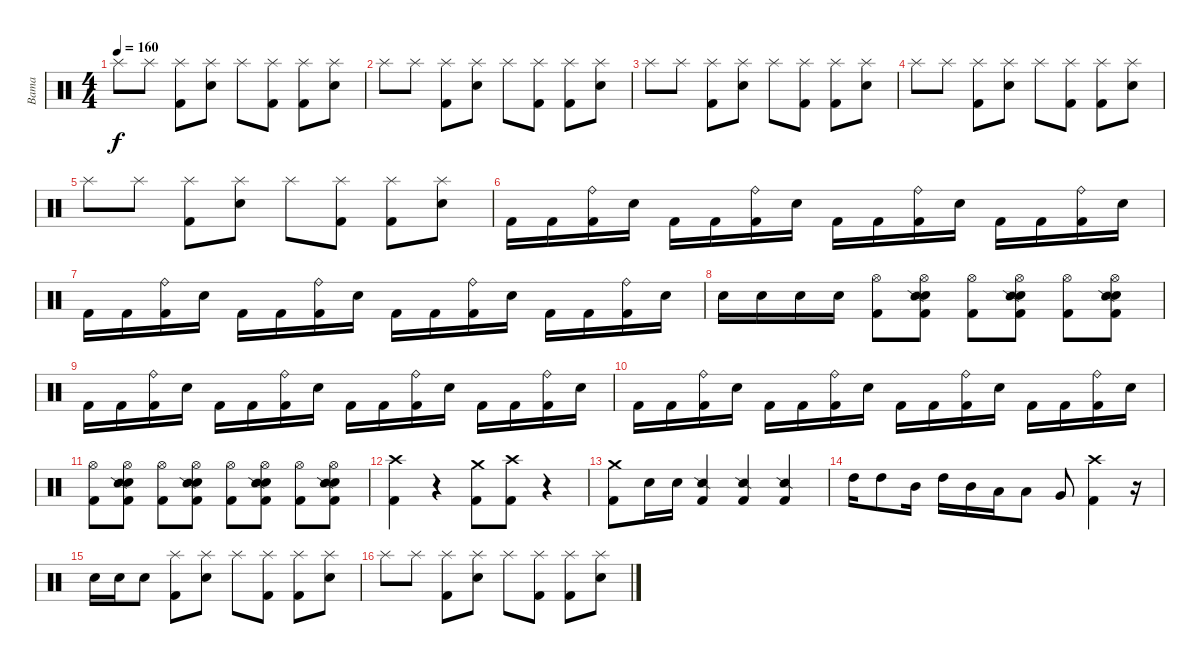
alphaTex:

\track ("Bama" "Bama") {instrument percussion}
\staff {score}
\articulation defaults
\ts (4 4)
\tempo 160
\clef neutral
\ks c "Splash (hit)".8{dy f} "Splash (hit)".8
("Splash (hit)" "Kick (hit) 2").8 ("Splash (hit)" "Electric Snare (hit)").8 "Splash (hit)".8 ("Splash (hit)" "Kick (hit) 2").8 ("Splash (hit)" "Kick (hit) 2").8 ("Splash (hit)" "Electric Snare (hit)").8 |
"Splash (hit)".8 "Splash (hit)".8 ("Splash (hit)" "Kick (hit) 2").8 ("Splash (hit)" "Electric Snare (hit)").8 "Splash (hit)".8 ("Splash (hit)" "Kick (hit) 2").8 ("Splash (hit)" "Kick (hit) 2").8 ("Splash (hit)" "Electric Snare (hit)").8 |
"Splash (hit)".8 "Splash (hit)".8 ("Splash (hit)" "Kick (hit) 2").8 ("Splash (hit)" "Electric Snare (hit)").8 "Splash (hit)".8 ("Splash (hit)" "Kick (hit) 2").8 ("Splash (hit)" "Kick (hit) 2").8 ("Splash (hit)" "Electric Snare (hit)").8 |
"Splash (hit)".8 "Splash (hit)".8 ("Splash (hit)" "Kick (hit) 2").8 ("Splash (hit)" "Electric Snare (hit)").8 "Splash (hit)".8 ("Splash (hit)" "Kick (hit) 2").8 ("Splash (hit)" "Kick (hit) 2").8 ("Splash (hit)" "Electric Snare (hit)").8 |
"Splash (hit)".8 "Splash (hit)".8 ("Splash (hit)" "Kick (hit) 2").8 ("Splash (hit)" "Electric Snare (hit)").8 "Splash (hit)".8 ("Splash (hit)" "Kick (hit) 2").8 ("Splash (hit)" "Kick (hit) 2").8 ("Splash (hit)" "Electric Snare (hit)").8 |
"Kick (hit) 2".16 "Kick (hit) 2".16 ("Ride (bell)" "Kick (hit) 2").16 "Electric Snare (hit)".16 "Kick (hit) 2".16 "Kick (hit) 2".16 ("Ride (bell)" "Kick (hit) 2").16 "Electric Snare (hit)".16 "Kick (hit) 2".16 "Kick (hit) 2".16 ("Ride (bell)" "Kick (hit) 2").16 "Electric Snare (hit)".16 "Kick (hit) 2".16 "Kick (hit) 2".16 ("Ride (bell)" "Kick (hit) 2").16 "Electric Snare (hit)".16 |
"Kick (hit) 2".16 "Kick (hit) 2".16 ("Ride (bell)" "Kick (hit) 2").16 "Electric Snare (hit)".16 "Kick (hit) 2".16 "Kick (hit) 2".16 ("Ride (bell)" "Kick (hit) 2").16 "Electric Snare (hit)".16 "Kick (hit) 2".16 "Kick (hit) 2".16 ("Ride (bell)" "Kick (hit) 2").16 "Electric Snare (hit)".16 "Kick (hit) 2".16 "Kick (hit) 2".16 ("Ride (bell)" "Kick (hit) 2").16 "Electric Snare (hit)".16 |
"Electric Snare (hit)".16 "Electric Snare (hit)".16 "Electric Snare (hit)".16 "Electric Snare (hit)".16 ("Hi-Hat (open)" "Kick (hit) 2").8 ("Hi-Hat (open)" "Electric Snare (hit)" "Snare (side stick) 2" "Kick (hit) 2").8 ("Hi-Hat (open)" "Kick (hit) 2").8 ("Hi-Hat (open)" "Electric Snare (hit)" "Snare (side stick) 2" "Kick (hit) 2").8 ("Hi-Hat (open)" "Kick (hit) 2").8 ("Hi-Hat (open)" "Electric Snare (hit)" "Snare (side stick) 2" "Kick (hit) 2").8 |
"Kick (hit) 2".16 "Kick (hit) 2".16 ("Ride (bell)" "Kick (hit) 2").16 "Electric Snare (hit)".16 "Kick (hit) 2".16 "Kick (hit) 2".16 ("Ride (bell)" "Kick (hit) 2").16 "Electric Snare (hit)".16 "Kick (hit) 2".16 "Kick (hit) 2".16 ("Ride (bell)" "Kick (hit) 2").16 "Electric Snare (hit)".16 "Kick (hit) 2".16 "Kick (hit) 2".16 ("Ride (bell)" "Kick (hit) 2").16 "Electric Snare (hit)".16 |
"Kick (hit) 2".16 "Kick (hit) 2".16 ("Ride (bell)" "Kick (hit) 2").16 "Electric Snare (hit)".16 "Kick (hit) 2".16 "Kick (hit) 2".16 ("Ride (bell)" "Kick (hit) 2").16 "Electric Snare (hit)".16 "Kick (hit) 2".16 "Kick (hit) 2".16 ("Ride (bell)" "Kick (hit) 2").16 "Electric Snare (hit)".16 "Kick (hit) 2".16 "Kick (hit) 2".16 ("Ride (bell)" "Kick (hit) 2").16 "Electric Snare (hit)".16 |
("Hi-Hat (open)" "Kick (hit) 2").8 ("Hi-Hat (open)" "Electric Snare (hit)" "Snare (side stick) 2" "Kick (hit) 2").8 ("Hi-Hat (open)" "Kick (hit) 2").8 ("Hi-Hat (open)" "Electric Snare (hit)" "Snare (side stick) 2" "Kick (hit) 2").8 ("Hi-Hat (open)" "Kick (hit) 2").8 ("Hi-Hat (open)" "Electric Snare (hit)" "Snare (side stick) 2" "Kick (hit) 2").8 ("Hi-Hat (open)" "Kick (hit) 2").8 ("Hi-Hat (open)" "Electric Snare (hit)" "Snare (side stick) 2" "Kick (hit) 2").8 |
("Crash high (hit)" "Kick (hit) 2").4 r.4 ("Crash medium (hit)" "Kick (hit) 2").8 ("Crash high (hit)" "Kick (hit) 2").8 r.4 |
("Crash medium (hit)" "Kick (hit) 2").8 "Electric Snare (hit)".16 "Electric Snare (hit)".16 ("Snare (side stick) 2" "Kick (hit) 2").4 ("Snare (side stick) 2" "Kick (hit) 2").4 ("Snare (side stick) 2" "Kick (hit) 2").4 |
"High Tom (hit)".16 "High Tom (hit)".8 "Mid Tom (hit)".16 "High Tom (hit)".16 "Mid Tom (hit)".16 "Low Tom (hit)".16 "Low Tom (hit)".8 "Very Low Tom (hit)".8 ("Crash high (hit)" "Kick (hit) 2").4 r.16 |
"Electric Snare (hit)".16 "Electric Snare (hit)".16 "Electric Snare (hit)".8 ("Splash (hit)" "Kick (hit) 2").8 ("Splash (hit)" "Electric Snare (hit)").8 "Splash (hit)".8 ("Splash (hit)" "Kick (hit) 2").8 ("Splash (hit)" "Kick (hit) 2").8 ("Splash (hit)" "Electric Snare (hit)").8 |
"Splash (hit)".8 "Splash (hit)".8 ("Splash (hit)" "Kick (hit) 2").8 ("Splash (hit)" "Electric Snare (hit)").8 "Splash (hit)".8 ("Splash (hit)" "Kick (hit) 2").8 ("Splash (hit)" "Kick (hit) 2").8 ("Splash (hit)" "Electric Snare (hit)").8
